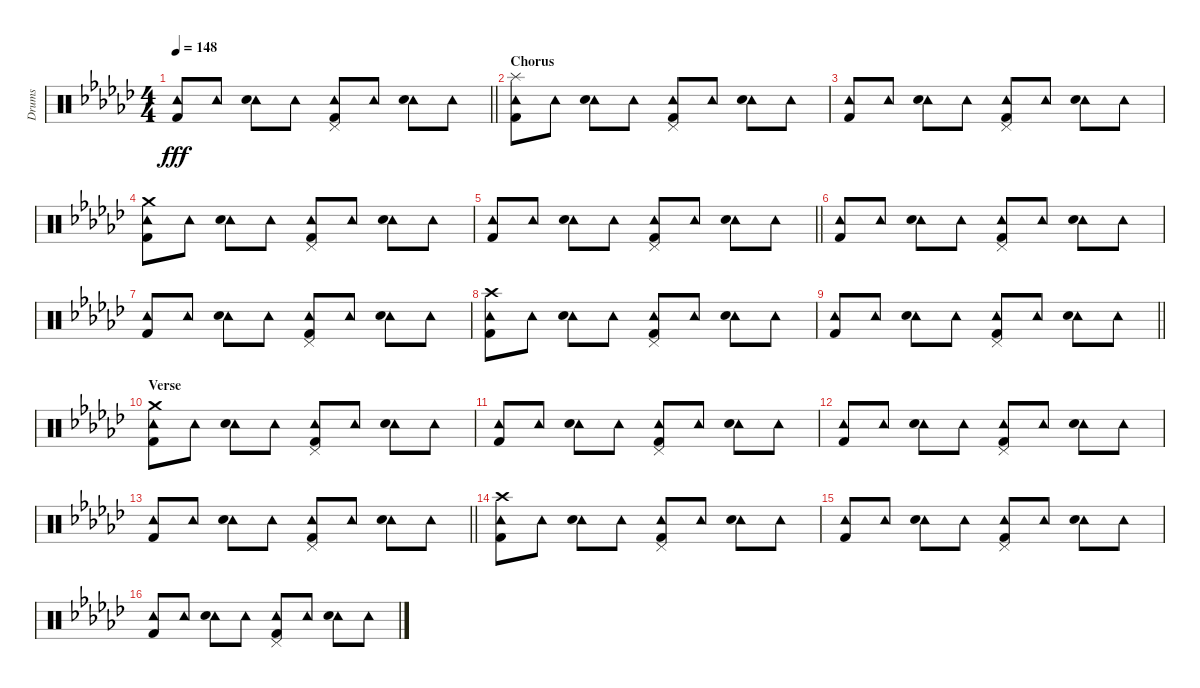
\track ("Drums" "Drums") {instrument percussion}
\staff {score}
\articulation defaults
\ts (4 4)
\tempo 148
\clef neutral
\barLineRight lightlight
\ks gb
("Tambourine (hit)" "Kick (hit) 2").8{dy fff} "Tambourine (hit)".8 ("Tambourine (hit)" "Electric Snare (hit)").8 "Tambourine (hit)".8 ("Pedal Hi-Hat (hit)" "Tambourine (hit)" "Kick (hit) 2").8 "Tambourine (hit)".8 ("Tambourine (hit)" "Electric Snare (hit)").8 "Tambourine (hit)".8 |
\section ("" "Chorus")
("Splash (hit)" "Tambourine (hit)" "Kick (hit) 2").8 "Tambourine (hit)".8 ("Tambourine (hit)" "Electric Snare (hit)").8 "Tambourine (hit)".8 ("Pedal Hi-Hat (hit)" "Tambourine (hit)" "Kick (hit) 2").8 "Tambourine (hit)".8 ("Tambourine (hit)" "Electric Snare (hit)").8 "Tambourine (hit)".8 |
("Tambourine (hit)" "Kick (hit) 2").8 "Tambourine (hit)".8 ("Tambourine (hit)" "Electric Snare (hit)").8 "Tambourine (hit)".8 ("Pedal Hi-Hat (hit)" "Tambourine (hit)" "Kick (hit) 2").8 "Tambourine (hit)".8 ("Tambourine (hit)" "Electric Snare (hit)").8 "Tambourine (hit)".8 |
("Crash medium (hit)" "Tambourine (hit)" "Kick (hit) 2").8 "Tambourine (hit)".8 ("Tambourine (hit)" "Electric Snare (hit)").8 "Tambourine (hit)".8 ("Pedal Hi-Hat (hit)" "Tambourine (hit)" "Kick (hit) 2").8 "Tambourine (hit)".8 ("Tambourine (hit)" "Electric Snare (hit)").8 "Tambourine (hit)".8 |
\barLineRight lightlight
("Tambourine (hit)" "Kick (hit) 2").8 "Tambourine (hit)".8 ("Tambourine (hit)" "Electric Snare (hit)").8 "Tambourine (hit)".8 ("Pedal Hi-Hat (hit)" "Tambourine (hit)" "Kick (hit) 2").8 "Tambourine (hit)".8 ("Tambourine (hit)" "Electric Snare (hit)").8 "Tambourine (hit)".8 |
("Tambourine (hit)" "Kick (hit) 2").8 "Tambourine (hit)".8 ("Tambourine (hit)" "Electric Snare (hit)").8 "Tambourine (hit)".8 ("Pedal Hi-Hat (hit)" "Tambourine (hit)" "Kick (hit) 2").8 "Tambourine (hit)".8 ("Tambourine (hit)" "Electric Snare (hit)").8 "Tambourine (hit)".8 |
("Tambourine (hit)" "Kick (hit) 2").8 "Tambourine (hit)".8 ("Tambourine (hit)" "Electric Snare (hit)").8 "Tambourine (hit)".8 ("Pedal Hi-Hat (hit)" "Tambourine (hit)" "Kick (hit) 2").8 "Tambourine (hit)".8 ("Tambourine (hit)" "Electric Snare (hit)").8 "Tambourine (hit)".8 |
("Crash high (hit)" "Tambourine (hit)" "Kick (hit) 2").8 "Tambourine (hit)".8 ("Tambourine (hit)" "Electric Snare (hit)").8 "Tambourine (hit)".8 ("Pedal Hi-Hat (hit)" "Tambourine (hit)" "Kick (hit) 2").8 "Tambourine (hit)".8 ("Tambourine (hit)" "Electric Snare (hit)").8 "Tambourine (hit)".8 |
\barLineRight lightlight
("Tambourine (hit)" "Kick (hit) 2").8 "Tambourine (hit)".8 ("Tambourine (hit)" "Electric Snare (hit)").8 "Tambourine (hit)".8 ("Pedal Hi-Hat (hit)" "Tambourine (hit)" "Kick (hit) 2").8 "Tambourine (hit)".8 ("Tambourine (hit)" "Electric Snare (hit)").8 "Tambourine (hit)".8 |
\section ("" "Verse")
("Crash medium (hit)" "Tambourine (hit)" "Kick (hit) 2").8 "Tambourine (hit)".8 ("Tambourine (hit)" "Electric Snare (hit)").8 "Tambourine (hit)".8 ("Pedal Hi-Hat (hit)" "Tambourine (hit)" "Kick (hit) 2").8 "Tambourine (hit)".8 ("Tambourine (hit)" "Electric Snare (hit)").8 "Tambourine (hit)".8 |
("Tambourine (hit)" "Kick (hit) 2").8 "Tambourine (hit)".8 ("Tambourine (hit)" "Electric Snare (hit)").8 "Tambourine (hit)".8 ("Pedal Hi-Hat (hit)" "Tambourine (hit)" "Kick (hit) 2").8 "Tambourine (hit)".8 ("Tambourine (hit)" "Electric Snare (hit)").8 "Tambourine (hit)".8 |
("Tambourine (hit)" "Kick (hit) 2").8 "Tambourine (hit)".8 ("Tambourine (hit)" "Electric Snare (hit)").8 "Tambourine (hit)".8 ("Pedal Hi-Hat (hit)" "Tambourine (hit)" "Kick (hit) 2").8 "Tambourine (hit)".8 ("Tambourine (hit)" "Electric Snare (hit)").8 "Tambourine (hit)".8 |
\barLineRight lightlight
("Tambourine (hit)" "Kick (hit) 2").8 "Tambourine (hit)".8 ("Tambourine (hit)" "Electric Snare (hit)").8 "Tambourine (hit)".8 ("Pedal Hi-Hat (hit)" "Tambourine (hit)" "Kick (hit) 2").8 "Tambourine (hit)".8 ("Tambourine (hit)" "Electric Snare (hit)").8 "Tambourine (hit)".8 |
("Crash high (hit)" "Tambourine (hit)" "Kick (hit) 2").8 "Tambourine (hit)".8 ("Tambourine (hit)" "Electric Snare (hit)").8 "Tambourine (hit)".8 ("Pedal Hi-Hat (hit)" "Tambourine (hit)" "Kick (hit) 2").8 "Tambourine (hit)".8 ("Tambourine (hit)" "Electric Snare (hit)").8 "Tambourine (hit)".8 |
("Tambourine (hit)" "Kick (hit) 2").8 "Tambourine (hit)".8 ("Tambourine (hit)" "Electric Snare (hit)").8 "Tambourine (hit)".8 ("Pedal Hi-Hat (hit)" "Tambourine (hit)" "Kick (hit) 2").8 "Tambourine (hit)".8 ("Tambourine (hit)" "Electric Snare (hit)").8 "Tambourine (hit)".8 |
("Tambourine (hit)" "Kick (hit) 2").8 "Tambourine (hit)".8 ("Tambourine (hit)" "Electric Snare (hit)").8 "Tambourine (hit)".8 ("Pedal Hi-Hat (hit)" "Tambourine (hit)" "Kick (hit) 2").8 "Tambourine (hit)".8 ("Tambourine (hit)" "Electric Snare (hit)").8 "Tambourine (hit)".8
